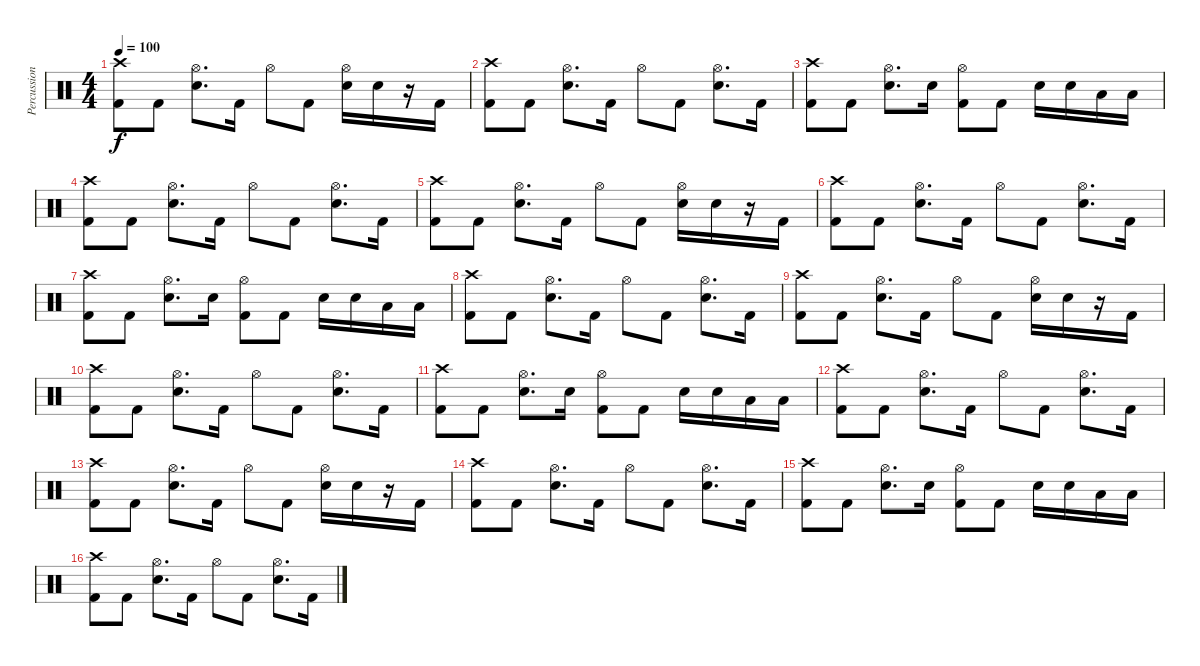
\track ("Percussion" "Percussion") {instrument percussion}
\staff {score}
\articulation defaults
\ts (4 4)
\tempo 100
\clef neutral
\ks c
("Crash high (hit)" "Kick (hit) 2").8{dy f} "Kick (hit) 2".8 ("Hi-Hat (open)" "Electric Snare (hit)").8{d} "Kick (hit) 2".16 "Hi-Hat (open)".8 "Kick (hit) 2".8 ("Hi-Hat (open)" "Electric Snare (hit)").16 "Electric Snare (hit)".16 r.16 "Kick (hit) 2".16 |
("Kick (hit) 2" "Crash high (hit)").8 "Kick (hit) 2".8 ("Electric Snare (hit)" "Hi-Hat (open)").8{d} "Kick (hit) 2".16 "Hi-Hat (open)".8 "Kick (hit) 2".8 ("Hi-Hat (open)" "Electric Snare (hit)").8{d} "Kick (hit) 2".16 |
("Kick (hit) 2" "Crash high (hit)").8 "Kick (hit) 2".8 ("Hi-Hat (open)" "Electric Snare (hit)").8{d} "Electric Snare (hit)".16 ("Kick (hit) 2" "Hi-Hat (open)").8 "Kick (hit) 2".8 "Electric Snare (hit)".16 "Electric Snare (hit)".16 "Low Tom (hit)".16 "Low Tom (hit)".16 |
("Kick (hit) 2" "Crash high (hit)").8 "Kick (hit) 2".8 ("Electric Snare (hit)" "Hi-Hat (open)").8{d} "Kick (hit) 2".16 "Hi-Hat (open)".8 "Kick (hit) 2".8 ("Hi-Hat (open)" "Electric Snare (hit)").8{d} "Kick (hit) 2".16 |
("Crash high (hit)" "Kick (hit) 2").8 "Kick (hit) 2".8 ("Hi-Hat (open)" "Electric Snare (hit)").8{d} "Kick (hit) 2".16 "Hi-Hat (open)".8 "Kick (hit) 2".8 ("Hi-Hat (open)" "Electric Snare (hit)").16 "Electric Snare (hit)".16 r.16 "Kick (hit) 2".16 |
("Kick (hit) 2" "Crash high (hit)").8 "Kick (hit) 2".8 ("Electric Snare (hit)" "Hi-Hat (open)").8{d} "Kick (hit) 2".16 "Hi-Hat (open)".8 "Kick (hit) 2".8 ("Hi-Hat (open)" "Electric Snare (hit)").8{d} "Kick (hit) 2".16 |
("Kick (hit) 2" "Crash high (hit)").8 "Kick (hit) 2".8 ("Hi-Hat (open)" "Electric Snare (hit)").8{d} "Electric Snare (hit)".16 ("Kick (hit) 2" "Hi-Hat (open)").8 "Kick (hit) 2".8 "Electric Snare (hit)".16 "Electric Snare (hit)".16 "Low Tom (hit)".16 "Low Tom (hit)".16 |
("Kick (hit) 2" "Crash high (hit)").8 "Kick (hit) 2".8 ("Electric Snare (hit)" "Hi-Hat (open)").8{d} "Kick (hit) 2".16 "Hi-Hat (open)".8 "Kick (hit) 2".8 ("Hi-Hat (open)" "Electric Snare (hit)").8{d} "Kick (hit) 2".16 |
("Crash high (hit)" "Kick (hit) 2").8 "Kick (hit) 2".8 ("Hi-Hat (open)" "Electric Snare (hit)").8{d} "Kick (hit) 2".16 "Hi-Hat (open)".8 "Kick (hit) 2".8 ("Hi-Hat (open)" "Electric Snare (hit)").16 "Electric Snare (hit)".16 r.16 "Kick (hit) 2".16 |
("Kick (hit) 2" "Crash high (hit)").8 "Kick (hit) 2".8 ("Electric Snare (hit)" "Hi-Hat (open)").8{d} "Kick (hit) 2".16 "Hi-Hat (open)".8 "Kick (hit) 2".8 ("Hi-Hat (open)" "Electric Snare (hit)").8{d} "Kick (hit) 2".16 |
("Kick (hit) 2" "Crash high (hit)").8 "Kick (hit) 2".8 ("Hi-Hat (open)" "Electric Snare (hit)").8{d} "Electric Snare (hit)".16 ("Kick (hit) 2" "Hi-Hat (open)").8 "Kick (hit) 2".8 "Electric Snare (hit)".16 "Electric Snare (hit)".16 "Low Tom (hit)".16 "Low Tom (hit)".16 |
("Kick (hit) 2" "Crash high (hit)").8 "Kick (hit) 2".8 ("Electric Snare (hit)" "Hi-Hat (open)").8{d} "Kick (hit) 2".16 "Hi-Hat (open)".8 "Kick (hit) 2".8 ("Hi-Hat (open)" "Electric Snare (hit)").8{d} "Kick (hit) 2".16 |
("Crash high (hit)" "Kick (hit) 2").8 "Kick (hit) 2".8 ("Hi-Hat (open)" "Electric Snare (hit)").8{d} "Kick (hit) 2".16 "Hi-Hat (open)".8 "Kick (hit) 2".8 ("Hi-Hat (open)" "Electric Snare (hit)").16 "Electric Snare (hit)".16 r.16 "Kick (hit) 2".16 |
("Kick (hit) 2" "Crash high (hit)").8 "Kick (hit) 2".8 ("Electric Snare (hit)" "Hi-Hat (open)").8{d} "Kick (hit) 2".16 "Hi-Hat (open)".8 "Kick (hit) 2".8 ("Hi-Hat (open)" "Electric Snare (hit)").8{d} "Kick (hit) 2".16 |
("Kick (hit) 2" "Crash high (hit)").8 "Kick (hit) 2".8 ("Hi-Hat (open)" "Electric Snare (hit)").8{d} "Electric Snare (hit)".16 ("Kick (hit) 2" "Hi-Hat (open)").8 "Kick (hit) 2".8 "Electric Snare (hit)".16 "Electric Snare (hit)".16 "Low Tom (hit)".16 "Low Tom (hit)".16 |
("Kick (hit) 2" "Crash high (hit)").8 "Kick (hit) 2".8 ("Electric Snare (hit)" "Hi-Hat (open)").8{d} "Kick (hit) 2".16 "Hi-Hat (open)".8 "Kick (hit) 2".8 ("Hi-Hat (open)" "Electric Snare (hit)").8{d} "Kick (hit) 2".16
